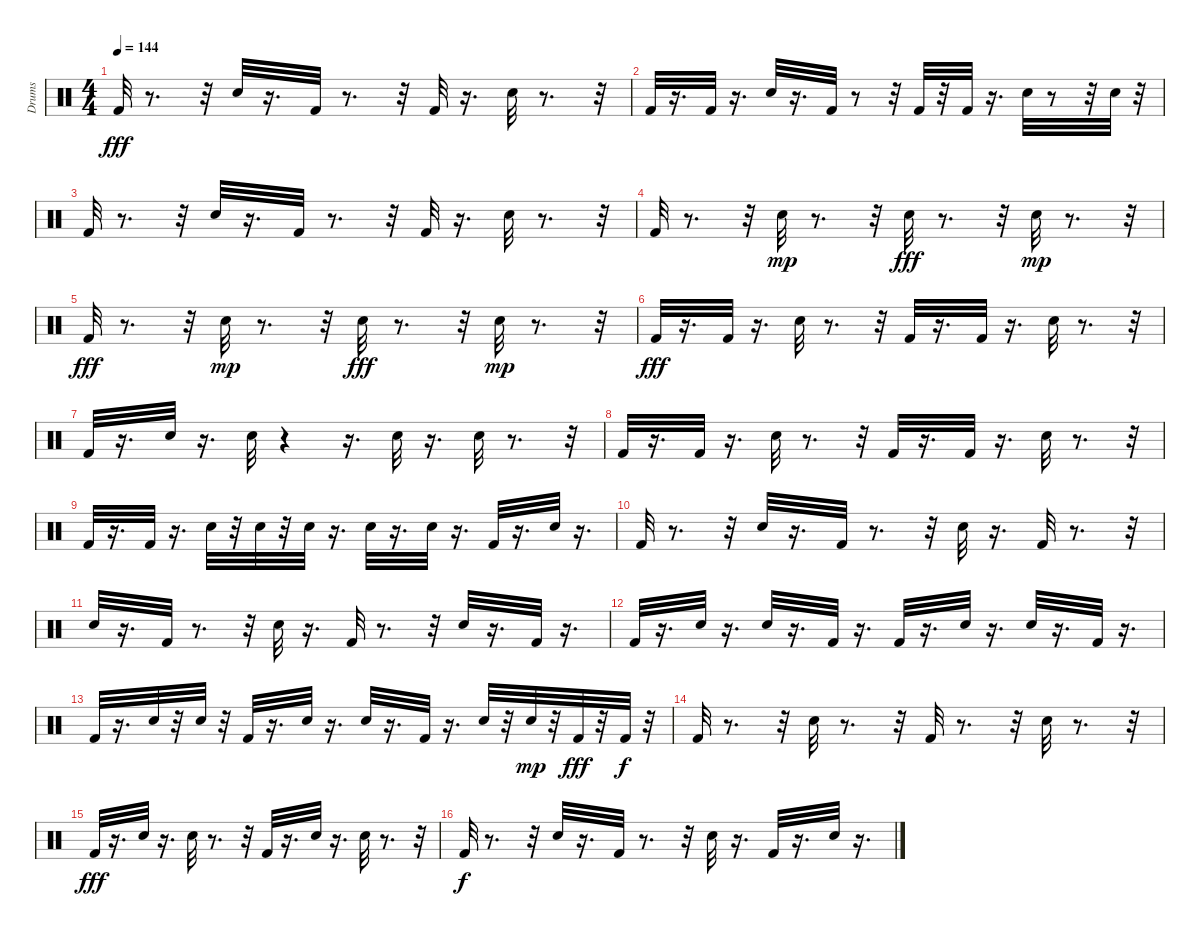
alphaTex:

\track ("Drums" "Drums") {instrument percussion}
\staff {score}
\articulation defaults
\ts (4 4)
\tempo 144
\clef neutral
\ks c "Kick (hit) 2".32{dy fff}
r.8{d} r.32 "Snare (hit) 2".32 r.16{d} "Kick (hit) 2".32 r.8{d} r.32 "Kick (hit) 2".32 r.16{d} "Snare (hit) 2".32 r.8{d} r.32 |
"Kick (hit) 2".32 r.16{d} "Kick (hit) 2".32 r.16{d} "Snare (hit) 2".32 r.16{d} "Kick (hit) 2".32 r.8 r.32 "Kick (hit) 2".32 r.32 "Kick (hit) 2".32 r.16{d} "Snare (hit) 2".32 r.8 r.32 "Snare (hit) 2".32 r.32 |
"Kick (hit) 2".32 r.8{d} r.32 "Snare (hit) 2".32 r.16{d} "Kick (hit) 2".32 r.8{d} r.32 "Kick (hit) 2".32 r.16{d} "Snare (hit) 2".32 r.8{d} r.32 |
"Kick (hit) 2".32 r.8{d} r.32 "Snare (hit) 2".32{dy mp} r.8{d} r.32 "Snare (hit) 2".32{dy fff} r.8{d} r.32 "Snare (hit) 2".32{dy mp} r.8{d} r.32 |
"Kick (hit) 2".32{dy fff} r.8{d} r.32 "Snare (hit) 2".32{dy mp} r.8{d} r.32 "Snare (hit) 2".32{dy fff} r.8{d} r.32 "Snare (hit) 2".32{dy mp} r.8{d} r.32 |
"Kick (hit) 2".32{dy fff} r.16{d} "Kick (hit) 2".32 r.16{d} "Snare (hit) 2".32 r.8{d} r.32 "Kick (hit) 2".32 r.16{d} "Kick (hit) 2".32 r.16{d} "Snare (hit) 2".32 r.8{d} r.32 |
"Kick (hit) 2".32 r.16{d} "Snare (hit) 2".32 r.16{d} "Snare (hit) 2".32 r.4 r.16{d} "Snare (hit) 2".32 r.16{d} "Snare (hit) 2".32 r.8{d} r.32 |
"Kick (hit) 2".32 r.16{d} "Kick (hit) 2".32 r.16{d} "Snare (hit) 2".32 r.8{d} r.32 "Kick (hit) 2".32 r.16{d} "Kick (hit) 2".32 r.16{d} "Snare (hit) 2".32 r.8{d} r.32 |
"Kick (hit) 2".32 r.16{d} "Kick (hit) 2".32 r.16{d} "Snare (hit) 2".32 r.32 "Snare (hit) 2".32 r.32 "Snare (hit) 2".32 r.16{d} "Snare (hit) 2".32 r.16{d} "Snare (hit) 2".32 r.16{d} "Kick (hit) 2".32 r.16{d} "Snare (hit) 2".32 r.16{d} |
"Kick (hit) 2".32 r.8{d} r.32 "Snare (hit) 2".32 r.16{d} "Kick (hit) 2".32 r.8{d} r.32 "Snare (hit) 2".32 r.16{d} "Kick (hit) 2".32 r.8{d} r.32 |
"Snare (hit) 2".32 r.16{d} "Kick (hit) 2".32 r.8{d} r.32 "Snare (hit) 2".32 r.16{d} "Kick (hit) 2".32 r.8{d} r.32 "Snare (hit) 2".32 r.16{d} "Kick (hit) 2".32 r.16{d} |
"Kick (hit) 2".32 r.16{d} "Snare (hit) 2".32 r.16{d} "Snare (hit) 2".32 r.16{d} "Kick (hit) 2".32 r.16{d} "Kick (hit) 2".32 r.16{d} "Snare (hit) 2".32 r.16{d} "Snare (hit) 2".32 r.16{d} "Kick (hit) 2".32 r.16{d} |
"Kick (hit) 2".32 r.16{d} "Snare (hit) 2".32 r.32 "Snare (hit) 2".32 r.32 "Kick (hit) 2".32 r.16{d} "Snare (hit) 2".32 r.16{d} "Snare (hit) 2".32 r.16{d} "Kick (hit) 2".32 r.16{d} "Snare (hit) 2".32 r.32 "Snare (hit) 2".32{dy mp} r.32 "Kick (hit) 2".32{dy fff} r.32 "Kick (hit) 2".32{dy f} r.32 |
"Kick (hit) 2".32 r.8{d} r.32 "Snare (hit) 2".32 r.8{d} r.32 "Kick (hit) 2".32 r.8{d} r.32 "Snare (hit) 2".32 r.8{d} r.32 |
"Kick (hit) 2".32{dy fff} r.16{d} "Snare (hit) 2".32 r.16{d} "Snare (hit) 2".32 r.8{d} r.32 "Kick (hit) 2".32 r.16{d} "Snare (hit) 2".32 r.16{d} "Snare (hit) 2".32 r.8{d} r.32 |
"Kick (hit) 2".32{dy f} r.8{d} r.32 "Snare (hit) 2".32 r.16{d} "Kick (hit) 2".32 r.8{d} r.32 "Snare (hit) 2".32 r.16{d} "Kick (hit) 2".32 r.16{d} "Snare (hit) 2".32 r.16{d}
